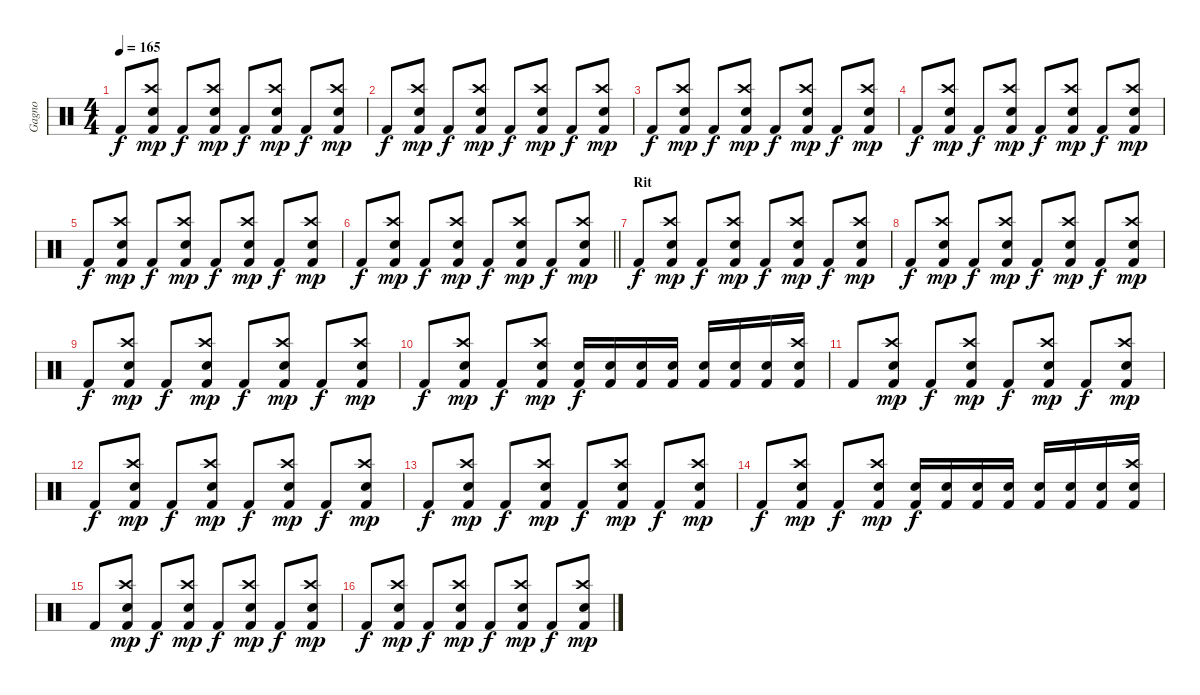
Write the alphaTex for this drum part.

\track ("Gagno" "Gagno") {instrument percussion}
\staff {score}
\articulation defaults
\ts (4 4)
\tempo 165
\clef neutral
\ks c "Kick (hit) 2".8{dy f}
("Crash high (hit)" "Electric Snare (hit)" "Kick (hit) 2").8{dy mp} "Kick (hit) 2".8{dy f} ("Crash high (hit)" "Electric Snare (hit)" "Kick (hit) 2").8{dy mp} "Kick (hit) 2".8{dy f} ("Crash high (hit)" "Electric Snare (hit)" "Kick (hit) 2").8{dy mp} "Kick (hit) 2".8{dy f} ("Crash high (hit)" "Electric Snare (hit)" "Kick (hit) 2").8{dy mp} |
"Kick (hit) 2".8{dy f} ("Crash high (hit)" "Electric Snare (hit)" "Kick (hit) 2").8{dy mp} "Kick (hit) 2".8{dy f} ("Crash high (hit)" "Electric Snare (hit)" "Kick (hit) 2").8{dy mp} "Kick (hit) 2".8{dy f} ("Crash high (hit)" "Electric Snare (hit)" "Kick (hit) 2").8{dy mp} "Kick (hit) 2".8{dy f} ("Crash high (hit)" "Electric Snare (hit)" "Kick (hit) 2").8{dy mp} |
"Kick (hit) 2".8{dy f} ("Crash high (hit)" "Electric Snare (hit)" "Kick (hit) 2").8{dy mp} "Kick (hit) 2".8{dy f} ("Crash high (hit)" "Electric Snare (hit)" "Kick (hit) 2").8{dy mp} "Kick (hit) 2".8{dy f} ("Crash high (hit)" "Electric Snare (hit)" "Kick (hit) 2").8{dy mp} "Kick (hit) 2".8{dy f} ("Crash high (hit)" "Electric Snare (hit)" "Kick (hit) 2").8{dy mp} |
"Kick (hit) 2".8{dy f} ("Crash high (hit)" "Electric Snare (hit)" "Kick (hit) 2").8{dy mp} "Kick (hit) 2".8{dy f} ("Crash high (hit)" "Electric Snare (hit)" "Kick (hit) 2").8{dy mp} "Kick (hit) 2".8{dy f} ("Crash high (hit)" "Electric Snare (hit)" "Kick (hit) 2").8{dy mp} "Kick (hit) 2".8{dy f} ("Crash high (hit)" "Electric Snare (hit)" "Kick (hit) 2").8{dy mp} |
"Kick (hit) 2".8{dy f} ("Crash high (hit)" "Electric Snare (hit)" "Kick (hit) 2").8{dy mp} "Kick (hit) 2".8{dy f} ("Crash high (hit)" "Electric Snare (hit)" "Kick (hit) 2").8{dy mp} "Kick (hit) 2".8{dy f} ("Crash high (hit)" "Electric Snare (hit)" "Kick (hit) 2").8{dy mp} "Kick (hit) 2".8{dy f} ("Crash high (hit)" "Electric Snare (hit)" "Kick (hit) 2").8{dy mp} |
\barLineRight lightlight "Kick (hit) 2".8{dy f}
("Crash high (hit)" "Electric Snare (hit)" "Kick (hit) 2").8{dy mp} "Kick (hit) 2".8{dy f} ("Crash high (hit)" "Electric Snare (hit)" "Kick (hit) 2").8{dy mp} "Kick (hit) 2".8{dy f} ("Crash high (hit)" "Electric Snare (hit)" "Kick (hit) 2").8{dy mp} "Kick (hit) 2".8{dy f} ("Crash high (hit)" "Electric Snare (hit)" "Kick (hit) 2").8{dy mp} |
\section ("" "Rit")
"Kick (hit) 2".8{dy f} ("Crash high (hit)" "Electric Snare (hit)" "Kick (hit) 2").8{dy mp} "Kick (hit) 2".8{dy f} ("Crash high (hit)" "Electric Snare (hit)" "Kick (hit) 2").8{dy mp} "Kick (hit) 2".8{dy f} ("Crash high (hit)" "Electric Snare (hit)" "Kick (hit) 2").8{dy mp} "Kick (hit) 2".8{dy f} ("Crash high (hit)" "Electric Snare (hit)" "Kick (hit) 2").8{dy mp} |
"Kick (hit) 2".8{dy f} ("Crash high (hit)" "Electric Snare (hit)" "Kick (hit) 2").8{dy mp} "Kick (hit) 2".8{dy f} ("Crash high (hit)" "Electric Snare (hit)" "Kick (hit) 2").8{dy mp} "Kick (hit) 2".8{dy f} ("Crash high (hit)" "Electric Snare (hit)" "Kick (hit) 2").8{dy mp} "Kick (hit) 2".8{dy f} ("Crash high (hit)" "Electric Snare (hit)" "Kick (hit) 2").8{dy mp} |
"Kick (hit) 2".8{dy f} ("Crash high (hit)" "Electric Snare (hit)" "Kick (hit) 2").8{dy mp} "Kick (hit) 2".8{dy f} ("Crash high (hit)" "Electric Snare (hit)" "Kick (hit) 2").8{dy mp} "Kick (hit) 2".8{dy f} ("Crash high (hit)" "Electric Snare (hit)" "Kick (hit) 2").8{dy mp} "Kick (hit) 2".8{dy f} ("Crash high (hit)" "Electric Snare (hit)" "Kick (hit) 2").8{dy mp} |
"Kick (hit) 2".8{dy f} ("Crash high (hit)" "Electric Snare (hit)" "Kick (hit) 2").8{dy mp} "Kick (hit) 2".8{dy f} ("Crash high (hit)" "Electric Snare (hit)" "Kick (hit) 2").8{dy mp} ("Electric Snare (hit)" "Kick (hit) 2").16{dy f} ("Electric Snare (hit)" "Kick (hit) 2").16 ("Electric Snare (hit)" "Kick (hit) 2").16 ("Electric Snare (hit)" "Kick (hit) 2").16 ("Electric Snare (hit)" "Kick (hit) 2").16 ("Electric Snare (hit)" "Kick (hit) 2").16 ("Electric Snare (hit)" "Kick (hit) 2").16 ("Crash high (hit)" "Electric Snare (hit)" "Kick (hit) 2").16 |
"Kick (hit) 2".8 ("Crash high (hit)" "Electric Snare (hit)" "Kick (hit) 2").8{dy mp} "Kick (hit) 2".8{dy f} ("Crash high (hit)" "Electric Snare (hit)" "Kick (hit) 2").8{dy mp} "Kick (hit) 2".8{dy f} ("Crash high (hit)" "Electric Snare (hit)" "Kick (hit) 2").8{dy mp} "Kick (hit) 2".8{dy f} ("Crash high (hit)" "Electric Snare (hit)" "Kick (hit) 2").8{dy mp} |
"Kick (hit) 2".8{dy f} ("Crash high (hit)" "Electric Snare (hit)" "Kick (hit) 2").8{dy mp} "Kick (hit) 2".8{dy f} ("Crash high (hit)" "Electric Snare (hit)" "Kick (hit) 2").8{dy mp} "Kick (hit) 2".8{dy f} ("Crash high (hit)" "Electric Snare (hit)" "Kick (hit) 2").8{dy mp} "Kick (hit) 2".8{dy f} ("Crash high (hit)" "Electric Snare (hit)" "Kick (hit) 2").8{dy mp} |
"Kick (hit) 2".8{dy f} ("Crash high (hit)" "Electric Snare (hit)" "Kick (hit) 2").8{dy mp} "Kick (hit) 2".8{dy f} ("Crash high (hit)" "Electric Snare (hit)" "Kick (hit) 2").8{dy mp} "Kick (hit) 2".8{dy f} ("Crash high (hit)" "Electric Snare (hit)" "Kick (hit) 2").8{dy mp} "Kick (hit) 2".8{dy f} ("Crash high (hit)" "Electric Snare (hit)" "Kick (hit) 2").8{dy mp} |
"Kick (hit) 2".8{dy f} ("Crash high (hit)" "Electric Snare (hit)" "Kick (hit) 2").8{dy mp} "Kick (hit) 2".8{dy f} ("Crash high (hit)" "Electric Snare (hit)" "Kick (hit) 2").8{dy mp} ("Electric Snare (hit)" "Kick (hit) 2").16{dy f} ("Electric Snare (hit)" "Kick (hit) 2").16 ("Electric Snare (hit)" "Kick (hit) 2").16 ("Electric Snare (hit)" "Kick (hit) 2").16 ("Electric Snare (hit)" "Kick (hit) 2").16 ("Electric Snare (hit)" "Kick (hit) 2").16 ("Electric Snare (hit)" "Kick (hit) 2").16 ("Crash high (hit)" "Electric Snare (hit)" "Kick (hit) 2").16 |
"Kick (hit) 2".8 ("Crash high (hit)" "Electric Snare (hit)" "Kick (hit) 2").8{dy mp} "Kick (hit) 2".8{dy f} ("Crash high (hit)" "Electric Snare (hit)" "Kick (hit) 2").8{dy mp} "Kick (hit) 2".8{dy f} ("Crash high (hit)" "Electric Snare (hit)" "Kick (hit) 2").8{dy mp} "Kick (hit) 2".8{dy f} ("Crash high (hit)" "Electric Snare (hit)" "Kick (hit) 2").8{dy mp} |
"Kick (hit) 2".8{dy f} ("Crash high (hit)" "Electric Snare (hit)" "Kick (hit) 2").8{dy mp} "Kick (hit) 2".8{dy f} ("Crash high (hit)" "Electric Snare (hit)" "Kick (hit) 2").8{dy mp} "Kick (hit) 2".8{dy f} ("Crash high (hit)" "Electric Snare (hit)" "Kick (hit) 2").8{dy mp} "Kick (hit) 2".8{dy f} ("Crash high (hit)" "Electric Snare (hit)" "Kick (hit) 2").8{dy mp}
